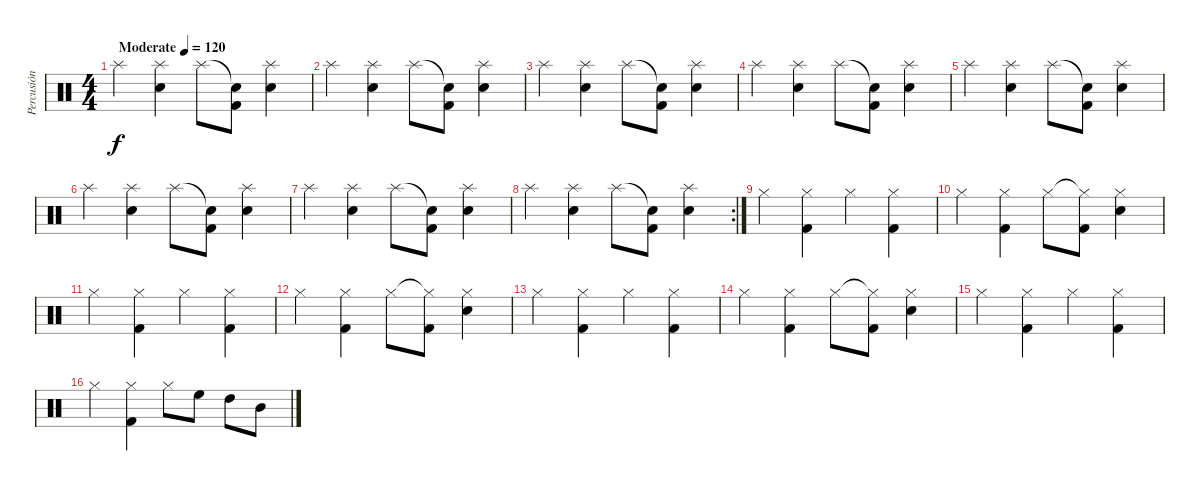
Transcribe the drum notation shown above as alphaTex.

\track ("Percusión" "Percusión") {instrument percussion}
\staff {score}
\articulation defaults
\ts (4 4)
\tempo (120 "Moderate")
\clef neutral
\ks c "Splash (hit)".4{dy f}
("Splash (hit)" "Snare (hit) 2").4 "Splash (hit)".8 ("Snare (hit)"{t} "Kick (hit) 2").8 ("Splash (hit)" "Snare (hit) 2").4 |
"Splash (hit)".4 ("Splash (hit)" "Snare (hit) 2").4 "Splash (hit)".8 ("Snare (hit)"{t} "Kick (hit) 2").8 ("Splash (hit)" "Snare (hit) 2").4 |
"Splash (hit)".4 ("Splash (hit)" "Snare (hit) 2").4 "Splash (hit)".8 ("Snare (hit)"{t} "Kick (hit) 2").8 ("Splash (hit)" "Snare (hit) 2").4 |
"Splash (hit)".4 ("Splash (hit)" "Snare (hit) 2").4 "Splash (hit)".8 ("Snare (hit)"{t} "Kick (hit) 2").8 ("Splash (hit)" "Snare (hit) 2").4 |
"Splash (hit)".4 ("Splash (hit)" "Snare (hit) 2").4 "Splash (hit)".8 ("Snare (hit)"{t} "Kick (hit) 2").8 ("Splash (hit)" "Snare (hit) 2").4 |
"Splash (hit)".4 ("Splash (hit)" "Snare (hit) 2").4 "Splash (hit)".8 ("Snare (hit)"{t} "Kick (hit) 2").8 ("Splash (hit)" "Snare (hit) 2").4 |
"Splash (hit)".4 ("Splash (hit)" "Snare (hit) 2").4 "Splash (hit)".8 ("Snare (hit)"{t} "Kick (hit) 2").8 ("Splash (hit)" "Snare (hit) 2").4 |
\rc 2 "Splash (hit)".4
("Splash (hit)" "Snare (hit) 2").4 "Splash (hit)".8 ("Snare (hit)"{t} "Kick (hit) 2").8 ("Splash (hit)" "Snare (hit) 2").4 |
"Hi-Hat (closed)".4 ("Hi-Hat (closed)" "Kick (hit) 2").4 "Hi-Hat (closed)".4 ("Hi-Hat (closed)" "Kick (hit) 2").4 |
"Hi-Hat (closed)".4 ("Hi-Hat (closed)" "Kick (hit) 2").4 "Hi-Hat (closed)".8 ("Hi-Hat (closed)"{t} "Kick (hit) 2").8 ("Hi-Hat (closed)" "Snare (hit) 2").4 |
"Hi-Hat (closed)".4 ("Hi-Hat (closed)" "Kick (hit) 2").4 "Hi-Hat (closed)".4 ("Hi-Hat (closed)" "Kick (hit) 2").4 |
"Hi-Hat (closed)".4 ("Hi-Hat (closed)" "Kick (hit) 2").4 "Hi-Hat (closed)".8 ("Hi-Hat (closed)"{t} "Kick (hit) 2").8 ("Hi-Hat (closed)" "Snare (hit) 2").4 |
"Hi-Hat (closed)".4 ("Hi-Hat (closed)" "Kick (hit) 2").4 "Hi-Hat (closed)".4 ("Hi-Hat (closed)" "Kick (hit) 2").4 |
"Hi-Hat (closed)".4 ("Hi-Hat (closed)" "Kick (hit) 2").4 "Hi-Hat (closed)".8 ("Hi-Hat (closed)"{t} "Kick (hit) 2").8 ("Hi-Hat (closed)" "Snare (hit) 2").4 |
"Hi-Hat (closed)".4 ("Hi-Hat (closed)" "Kick (hit) 2").4 "Hi-Hat (closed)".4 ("Hi-Hat (closed)" "Kick (hit) 2").4 |
"Hi-Hat (closed)".4 ("Hi-Hat (closed)" "Kick (hit) 2").4 "Hi-Hat (closed)".8 "High Floor Tom (hit)".8 "High Tom (hit)".8 "Mid Tom (hit)".8
